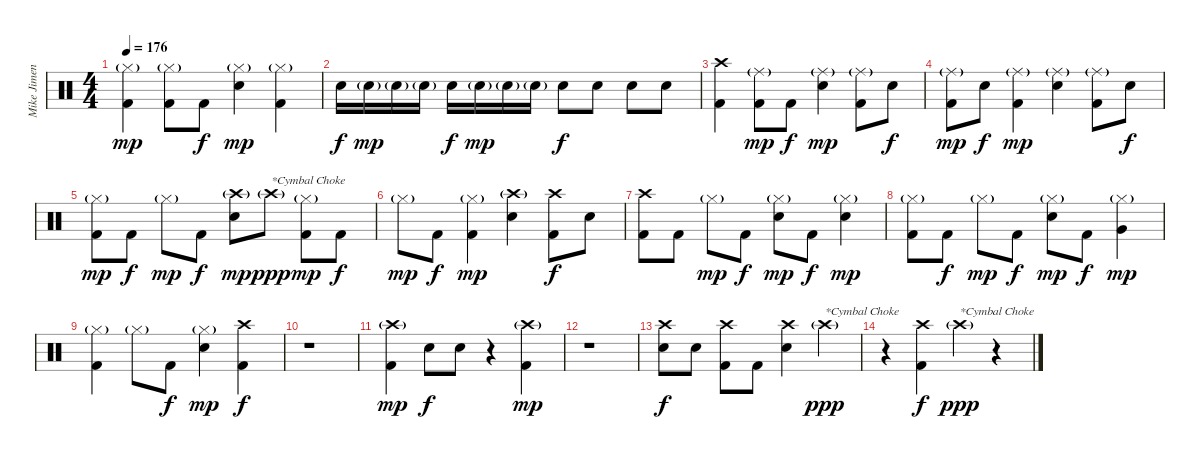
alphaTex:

\track ("Mike Jimenez" "Mike Jimen") {instrument percussion}
\staff {score}
\articulation defaults
\ts (4 4)
\tempo 176
\clef neutral
\ks c
("Hi-Hat (closed)"{g} "Kick (hit) 2").4{dy mp} ("Hi-Hat (closed)"{g} "Kick (hit) 2").8 "Kick (hit) 2".8{dy f} ("Hi-Hat (closed)"{g} "Electric Snare (hit)").4{dy mp} ("Hi-Hat (closed)"{g} "Kick (hit) 2").4 |
"Electric Snare (hit)".16{dy f} "Electric Snare (hit)"{g}.16{dy mp} "Electric Snare (hit)"{g}.16 "Electric Snare (hit)"{g}.16 "Electric Snare (hit)".16{dy f} "Electric Snare (hit)"{g}.16{dy mp} "Electric Snare (hit)"{g}.16 "Electric Snare (hit)"{g}.16 "Electric Snare (hit)".8{dy f} "Electric Snare (hit)".8 "Electric Snare (hit)".8 "Electric Snare (hit)".8 |
("Crash high (hit)" "Kick (hit) 2").4 ("Ride (middle)"{g} "Kick (hit) 2").8{dy mp} "Kick (hit) 2".8{dy f} ("Ride (middle)"{g} "Electric Snare (hit)").4{dy mp} ("Ride (middle)"{g} "Kick (hit) 2").8 "Electric Snare (hit)".8{dy f} |
("Ride (middle)"{g} "Kick (hit) 2").8{dy mp} "Electric Snare (hit)".8{dy f} ("Ride (middle)"{g} "Kick (hit) 2").4{dy mp} ("Ride (middle)"{g} "Electric Snare (hit)").4 ("Ride (middle)"{g} "Kick (hit) 2").8 "Electric Snare (hit)".8{dy f} |
("Hi-Hat (closed)"{g} "Kick (hit) 2").8{dy mp} "Kick (hit) 2".8{dy f} "Hi-Hat (closed)"{g}.8{dy mp} "Kick (hit) 2".8{dy f} ("Crash high (hit)"{g} "Electric Snare (hit)").8{dy mp} "Crash high (hit)"{g}.8{txt "*Cymbal Choke" dy ppp} ("Hi-Hat (closed)"{g} "Kick (hit) 2").8{dy mp} "Kick (hit) 2".8{dy f} |
"Hi-Hat (closed)"{g}.8{dy mp} "Kick (hit) 2".8{dy f} ("Hi-Hat (closed)"{g} "Kick (hit) 2").4{dy mp} ("Crash high (hit)"{g} "Electric Snare (hit)").4 ("Crash high (hit)" "Kick (hit) 2").8{dy f} "Electric Snare (hit)".8 |
("Crash high (hit)" "Kick (hit) 2").8 "Kick (hit) 2".8 "Hi-Hat (closed)"{g}.8{dy mp} "Kick (hit) 2".8{dy f} ("Hi-Hat (closed)"{g} "Electric Snare (hit)").8{dy mp} "Kick (hit) 2".8{dy f} ("Hi-Hat (closed)"{g} "Electric Snare (hit)").4{dy mp} |
("Hi-Hat (closed)"{g} "Kick (hit) 2").8 "Kick (hit) 2".8{dy f} "Hi-Hat (closed)"{g}.8{dy mp} "Kick (hit) 2".8{dy f} ("Hi-Hat (closed)"{g} "Electric Snare (hit)").8{dy mp} "Kick (hit) 2".8{dy f} ("Hi-Hat (closed)"{g} "Very Low Tom (hit)").4{dy mp} |
("Hi-Hat (closed)"{g} "Kick (hit) 2").4 "Hi-Hat (closed)"{g}.8 "Kick (hit) 2".8{dy f} ("Hi-Hat (closed)"{g} "Electric Snare (hit)").4{dy mp} ("Crash high (hit)" "Kick (hit) 2").4{dy f} |
r.1 |
("Crash high (hit)"{g} "Kick (hit) 2").4{dy mp} "Electric Snare (hit)".8{dy f} "Electric Snare (hit)".8 r.4 ("Crash high (hit)"{g} "Kick (hit) 2").4{dy mp} |
r.1 |
("Crash high (hit)" "Electric Snare (hit)").8{dy f} "Electric Snare (hit)".8 ("Crash high (hit)" "Kick (hit) 2").8 "Kick (hit) 2".8 ("Crash high (hit)" "Electric Snare (hit)").4 "Crash high (hit)"{g}.4{txt "*Cymbal Choke" dy ppp} |
r.4 ("Crash high (hit)" "Kick (hit) 2").4{dy f} "Crash high (hit)"{g}.4{txt "*Cymbal Choke" dy ppp} r.4
